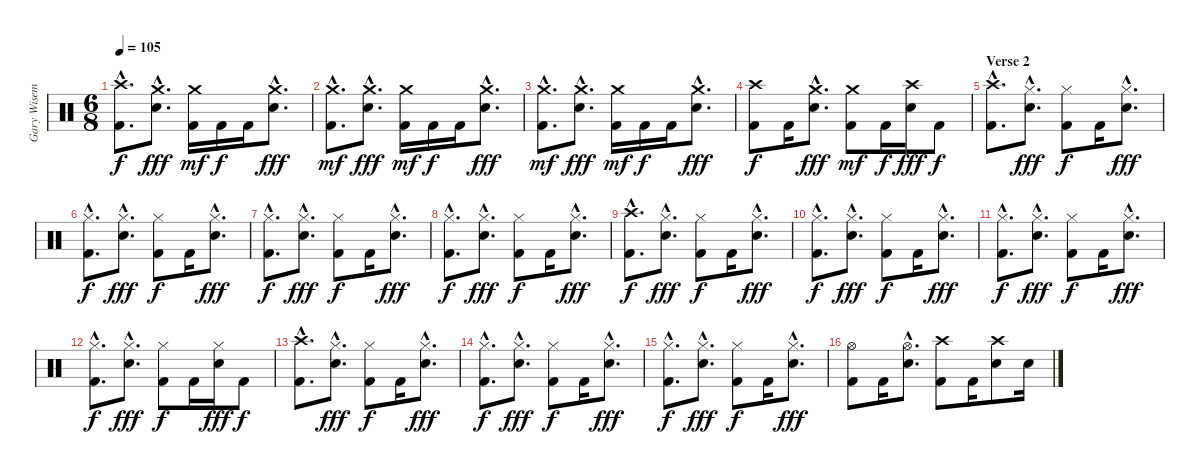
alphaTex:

\track ("Gary Wiseman - Drums" "Gary Wisem") {instrument percussion}
\staff {score}
\articulation defaults
\ts (6 8)
\tempo 105
\clef neutral
\ks c
("Crash high (hit)"{hac} "Kick (hit) 2"{hac}).8{d dy f} ("Crash medium (hit)"{hac} "Electric Snare (hit)"{hac}).8{d dy fff} ("Crash medium (hit)" "Kick (hit) 2").16{dy mf} "Kick (hit) 2".16{dy f} "Kick (hit) 2".16 ("Crash medium (hit)"{hac} "Electric Snare (hit)"{hac}).8{d dy fff} |
("Crash medium (hit)"{hac} "Kick (hit) 2"{hac}).8{d dy mf} ("Crash medium (hit)"{hac} "Electric Snare (hit)"{hac}).8{d dy fff} ("Crash medium (hit)" "Kick (hit) 2").16{dy mf} "Kick (hit) 2".16{dy f} "Kick (hit) 2".16 ("Crash medium (hit)"{hac} "Electric Snare (hit)"{hac}).8{d dy fff} |
("Crash medium (hit)"{hac} "Kick (hit) 2"{hac}).8{d dy mf} ("Crash medium (hit)"{hac} "Electric Snare (hit)"{hac}).8{d dy fff} ("Crash medium (hit)" "Kick (hit) 2").16{dy mf} "Kick (hit) 2".16{dy f} "Kick (hit) 2".16 ("Crash medium (hit)"{hac} "Electric Snare (hit)"{hac}).8{d dy fff} |
("Crash high (hit)" "Kick (hit) 2").8{dy f} "Kick (hit) 2".16 ("Crash medium (hit)"{hac} "Electric Snare (hit)"{hac}).8{d dy fff} ("Crash medium (hit)" "Kick (hit) 2").8{dy mf} "Kick (hit) 2".16{dy f} ("Crash high (hit)" "Electric Snare (hit)").16{dy fff} "Kick (hit) 2".8{dy f} |
\section ("" "Verse 2")
("Crash high (hit)"{hac} "Kick (hit) 2"{hac}).8{d} ("Hi-Hat (closed)"{hac} "Electric Snare (hit)"{hac}).8{d dy fff} ("Hi-Hat (closed)" "Kick (hit) 2").8{dy f} "Kick (hit) 2".16 ("Hi-Hat (closed)"{hac} "Electric Snare (hit)"{hac}).8{d dy fff} |
("Hi-Hat (closed)"{hac} "Kick (hit) 2"{hac}).8{d dy f} ("Hi-Hat (closed)"{hac} "Electric Snare (hit)"{hac}).8{d dy fff} ("Hi-Hat (closed)" "Kick (hit) 2").8{dy f} "Kick (hit) 2".16 ("Hi-Hat (closed)"{hac} "Electric Snare (hit)"{hac}).8{d dy fff} |
("Hi-Hat (closed)"{hac} "Kick (hit) 2"{hac}).8{d dy f} ("Hi-Hat (closed)"{hac} "Electric Snare (hit)"{hac}).8{d dy fff} ("Hi-Hat (closed)" "Kick (hit) 2").8{dy f} "Kick (hit) 2".16 ("Hi-Hat (closed)"{hac} "Electric Snare (hit)"{hac}).8{d dy fff} |
("Hi-Hat (closed)"{hac} "Kick (hit) 2"{hac}).8{d dy f} ("Hi-Hat (closed)"{hac} "Electric Snare (hit)"{hac}).8{d dy fff} ("Hi-Hat (closed)" "Kick (hit) 2").8{dy f} "Kick (hit) 2".16 ("Hi-Hat (closed)"{hac} "Electric Snare (hit)"{hac}).8{d dy fff} |
("Crash high (hit)"{hac} "Kick (hit) 2"{hac}).8{d dy f} ("Hi-Hat (closed)"{hac} "Electric Snare (hit)"{hac}).8{d dy fff} ("Hi-Hat (closed)" "Kick (hit) 2").8{dy f} "Kick (hit) 2".16 ("Hi-Hat (closed)"{hac} "Electric Snare (hit)"{hac}).8{d dy fff} |
("Hi-Hat (closed)"{hac} "Kick (hit) 2"{hac}).8{d dy f} ("Hi-Hat (closed)"{hac} "Electric Snare (hit)"{hac}).8{d dy fff} ("Hi-Hat (closed)" "Kick (hit) 2").8{dy f} "Kick (hit) 2".16 ("Hi-Hat (closed)"{hac} "Electric Snare (hit)"{hac}).8{d dy fff} |
("Hi-Hat (closed)"{hac} "Kick (hit) 2"{hac}).8{d dy f} ("Hi-Hat (closed)"{hac} "Electric Snare (hit)"{hac}).8{d dy fff} ("Hi-Hat (closed)" "Kick (hit) 2").8{dy f} "Kick (hit) 2".16 ("Hi-Hat (closed)"{hac} "Electric Snare (hit)"{hac}).8{d dy fff} |
("Hi-Hat (closed)"{hac} "Kick (hit) 2"{hac}).8{d dy f} ("Hi-Hat (closed)"{hac} "Electric Snare (hit)"{hac}).8{d dy fff} ("Hi-Hat (closed)" "Kick (hit) 2").8{dy f} "Kick (hit) 2".16 ("Hi-Hat (closed)" "Electric Snare (hit)").16{dy fff} "Kick (hit) 2".8{dy f} |
("Crash high (hit)"{hac} "Kick (hit) 2"{hac}).8{d} ("Hi-Hat (closed)"{hac} "Electric Snare (hit)"{hac}).8{d dy fff} ("Hi-Hat (closed)" "Kick (hit) 2").8{dy f} "Kick (hit) 2".16 ("Hi-Hat (closed)"{hac} "Electric Snare (hit)"{hac}).8{d dy fff} |
("Hi-Hat (closed)"{hac} "Kick (hit) 2"{hac}).8{d dy f} ("Hi-Hat (closed)"{hac} "Electric Snare (hit)"{hac}).8{d dy fff} ("Hi-Hat (closed)" "Kick (hit) 2").8{dy f} "Kick (hit) 2".16 ("Hi-Hat (closed)"{hac} "Electric Snare (hit)"{hac}).8{d dy fff} |
("Hi-Hat (closed)"{hac} "Kick (hit) 2"{hac}).8{d dy f} ("Hi-Hat (closed)"{hac} "Electric Snare (hit)"{hac}).8{d dy fff} ("Hi-Hat (closed)" "Kick (hit) 2").8{dy f} "Kick (hit) 2".16 ("Hi-Hat (closed)"{hac} "Electric Snare (hit)"{hac}).8{d dy fff} |
("Hi-Hat (open)" "Kick (hit) 2").8 "Kick (hit) 2".16 ("Hi-Hat (open)"{hac} "Electric Snare (hit)"{hac}).8{d} ("Crash high (hit)" "Kick (hit) 2").8 "Kick (hit) 2".16 ("Crash high (hit)" "Electric Snare (hit)").8 "Electric Snare (hit)".16
